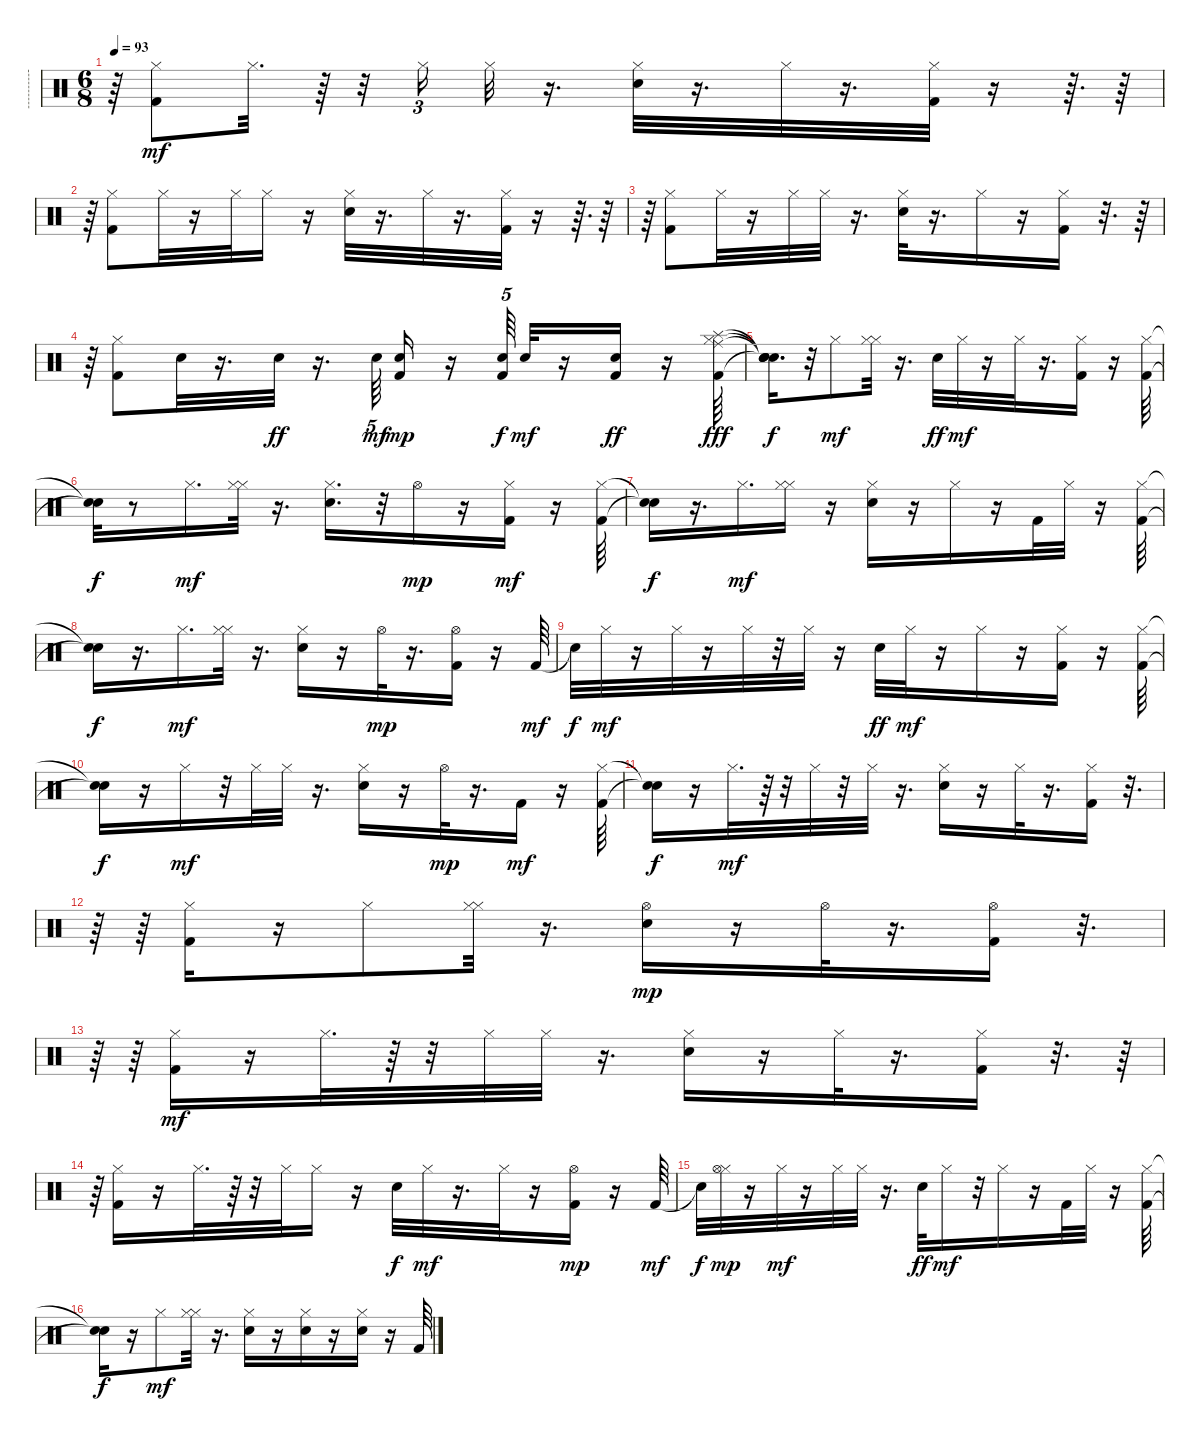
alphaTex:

\track ("-----------------------------------" "----------") {instrument percussion}
\staff {score}
\articulation defaults
\ts (6 8)
\tempo 93
\clef neutral
\ks c
r.64{dy mf} ("Hi-Hat (closed)" "Kick (hit) 2").8 "Hi-Hat (closed)".32{d} r.64 r.32 "Hi-Hat (closed)".16{tu (3 2)} "Hi-Hat (closed)".32 r.16{d} ("Hi-Hat (closed)" "Snare (hit) 2").32 r.16{d} "Hi-Hat (closed)".32 r.16{d} ("Hi-Hat (closed)" "Kick (hit) 2").32 r.16 r.64{d} r.64 |
r.64 ("Hi-Hat (closed)" "Kick (hit) 2").8 "Hi-Hat (closed)".32 r.16 "Hi-Hat (closed)".32 "Hi-Hat (closed)".16 r.16 ("Hi-Hat (closed)" "Snare (hit) 2").32 r.16{d} "Hi-Hat (closed)".32 r.16{d} ("Hi-Hat (closed)" "Kick (hit) 2").32 r.16 r.64{d} r.64 |
r.64 ("Hi-Hat (closed)" "Kick (hit) 2").8 "Hi-Hat (closed)".32 r.16 "Hi-Hat (closed)".32 "Hi-Hat (closed)".32 r.16{d} ("Hi-Hat (closed)" "Snare (hit) 2").32 r.16{d} "Hi-Hat (closed)".16 r.16 ("Hi-Hat (closed)" "Kick (hit) 2").16 r.32{d} r.64 |
r.64 ("Hi-Hat (closed)" "Kick (hit) 2").8 "Snare (hit) 2".32 r.16{d} "Snare (hit) 2".32{dy ff} r.16{d} "Snare (hit) 2".64{tu (5 4) dy mf} ("Kick (hit) 2" "Electric Snare (hit)").16{dy mp} r.16 ("Kick (hit) 2" "Snare (hit) 2").64{tu (5 4) dy f} "Electric Snare (hit)".32{dy mf} r.16 ("Kick (hit) 2" "Electric Snare (hit)").16{dy ff} r.16 ("Kick (hit) 2" "Hi-Hat (closed)" "Ride (middle)" "Splash (hit)").64{dy fff} |
("Snare (hit)"{t} "Snare (hit)"{t} "Snare (hit)"{t} "Snare (hit)"{t}).16{d dy f} r.32 "Hi-Hat (closed)".8{dy mf} ("Hi-Hat (closed)" "Hi-Hat (closed)").32 r.16{d} "Snare (hit) 2".32{dy ff} "Hi-Hat (closed)".32{dy mf} r.16 "Hi-Hat (closed)".32 r.16{d} ("Kick (hit) 2" "Hi-Hat (closed)").16 r.16 ("Kick (hit) 2" "Hi-Hat (closed)").64 |
("Snare (hit)"{t} "Snare (hit)"{t}).32{dy f} r.8 "Hi-Hat (closed)".16{d dy mf} ("Hi-Hat (closed)" "Hi-Hat (closed)").32 r.16{d} ("Snare (hit) 2" "Hi-Hat (closed)").16{d} r.32 "Hi-Hat (open)".16{dy mp} r.16 ("Kick (hit) 2" "Hi-Hat (closed)").16{dy mf} r.16 ("Kick (hit) 2" "Hi-Hat (closed)").64 |
("Snare (hit)"{t} "Snare (hit)"{t}).16{dy f} r.16{d} "Hi-Hat (closed)".16{d dy mf} ("Hi-Hat (closed)" "Hi-Hat (closed)").16 r.16 ("Snare (hit) 2" "Hi-Hat (closed)").16 r.16 "Hi-Hat (closed)".16 r.16 "Kick (hit) 2".32 "Hi-Hat (closed)".32 r.16 ("Kick (hit) 2" "Hi-Hat (closed)").64 |
("Snare (hit)"{t} "Snare (hit)"{t}).16{dy f} r.16{d} "Hi-Hat (closed)".16{d dy mf} ("Hi-Hat (closed)" "Hi-Hat (closed)").32 r.16{d} ("Snare (hit) 2" "Hi-Hat (closed)").16 r.16 "Hi-Hat (open)".32{dy mp} r.16{d} ("Kick (hit) 2" "Hi-Hat (open)").16 r.16 "Kick (hit) 2".64{dy mf} |
"Snare (hit)"{t}.32{dy f} "Hi-Hat (closed)".32{dy mf} r.16 "Hi-Hat (closed)".32 r.16 "Hi-Hat (closed)".32 r.32 "Hi-Hat (closed)".32 r.16 "Snare (hit) 2".32{dy ff} "Hi-Hat (closed)".32{dy mf} r.16 "Hi-Hat (closed)".16 r.16 ("Kick (hit) 2" "Hi-Hat (closed)").16 r.16 ("Kick (hit) 2" "Hi-Hat (closed)").64 |
("Snare (hit)"{t} "Snare (hit)"{t}).16{dy f} r.16 "Hi-Hat (closed)".16{dy mf} r.32 "Hi-Hat (closed)".32 "Hi-Hat (closed)".32 r.16{d} ("Snare (hit) 2" "Hi-Hat (closed)").16 r.16 "Hi-Hat (open)".32{dy mp} r.16{d} "Kick (hit) 2".16{dy mf} r.16 ("Kick (hit) 2" "Hi-Hat (closed)").64 |
("Snare (hit)"{t} "Snare (hit)"{t}).16{dy f} r.16 "Hi-Hat (closed)".32{d dy mf} r.64 r.32 "Hi-Hat (closed)".32 r.32 "Hi-Hat (closed)".32 r.16{d} ("Snare (hit) 2" "Hi-Hat (closed)").16 r.16 "Hi-Hat (closed)".32 r.16{d} ("Kick (hit) 2" "Hi-Hat (closed)").16 r.32{d} |
r.64 r.64 ("Kick (hit) 2" "Hi-Hat (closed)").16 r.16 "Hi-Hat (closed)".8 ("Hi-Hat (closed)" "Hi-Hat (closed)").32 r.16{d} ("Snare (hit) 2" "Hi-Hat (open)").16{dy mp} r.16 "Hi-Hat (open)".32 r.16{d} ("Kick (hit) 2" "Hi-Hat (open)").16 r.32{d} |
r.64 r.64 ("Kick (hit) 2" "Hi-Hat (closed)").16{dy mf} r.16 "Hi-Hat (closed)".32{d} r.64 r.32 "Hi-Hat (closed)".32 "Hi-Hat (closed)".32 r.16{d} ("Snare (hit) 2" "Hi-Hat (closed)").16 r.16 "Hi-Hat (closed)".32 r.16{d} ("Kick (hit) 2" "Hi-Hat (closed)").16 r.32{d} r.64 |
r.64 ("Kick (hit) 2" "Hi-Hat (closed)").16 r.16 "Hi-Hat (closed)".32{d} r.64 r.32 "Hi-Hat (closed)".32 "Hi-Hat (closed)".16 r.16 "Snare (hit) 2".32{dy f} "Hi-Hat (closed)".32{dy mf} r.16{d} "Hi-Hat (closed)".32 r.16 ("Kick (hit) 2" "Hi-Hat (open)").16{dy mp} r.16 "Kick (hit) 2".64{dy mf} |
"Snare (hit)"{t}.32{dy f} ("Hi-Hat (closed)" "Hi-Hat (open)").32{dy mp} r.16 "Hi-Hat (closed)".32{dy mf} r.16 "Hi-Hat (closed)".32 "Hi-Hat (closed)".32 r.16{d} "Snare (hit) 2".32{dy ff} "Hi-Hat (closed)".16{dy mf} r.32 "Hi-Hat (closed)".16 r.16 "Kick (hit) 2".32 "Hi-Hat (closed)".32 r.16 ("Kick (hit) 2" "Hi-Hat (closed)").64 |
("Snare (hit)"{t} "Snare (hit)"{t}).16{dy f} r.16 "Hi-Hat (closed)".8{dy mf} ("Hi-Hat (closed)" "Hi-Hat (closed)").32 r.16{d} ("Snare (hit) 2" "Hi-Hat (closed)").16 r.16 ("Snare (hit) 2" "Hi-Hat (closed)").16 r.16 ("Snare (hit) 2" "Hi-Hat (closed)").16 r.16 "Kick (hit) 2".64
